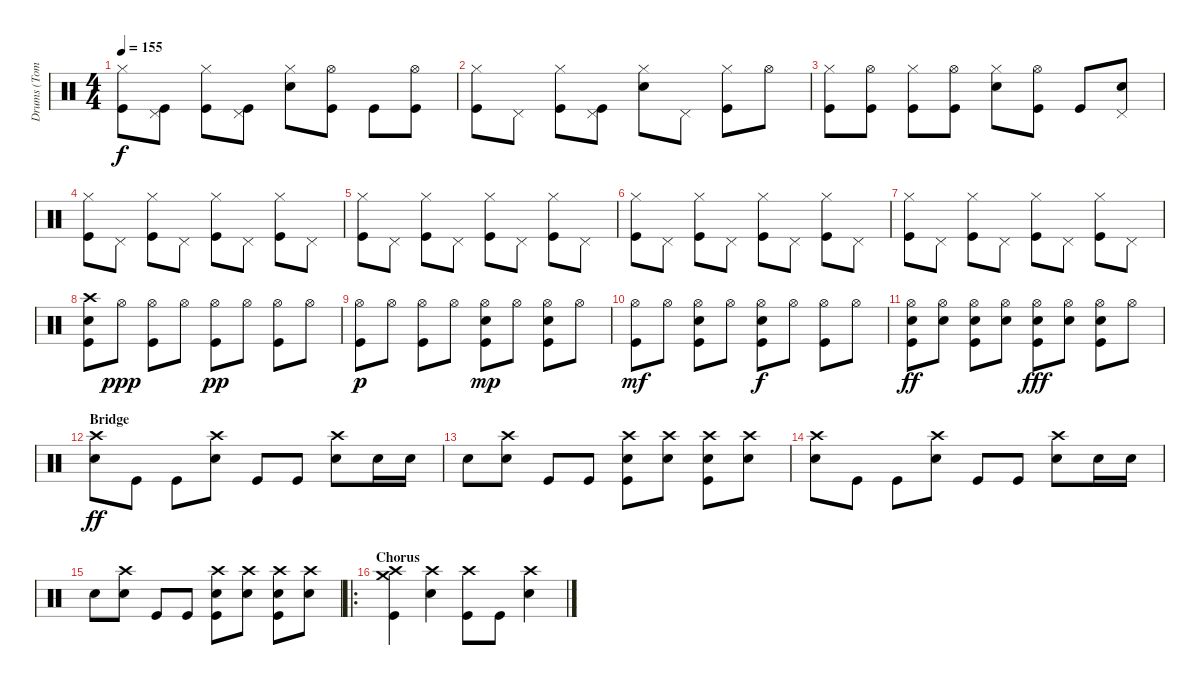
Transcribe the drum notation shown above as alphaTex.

\track ("Drums (Tommy Decker)" "Drums (Tom") {instrument percussion}
\staff {score}
\articulation defaults
\ts (4 4)
\tempo 155
\clef neutral
\ks c
("Hi-Hat (closed)" "Kick (hit)").8{dy f} ("Pedal Hi-Hat (hit)" "Kick (hit)").8 ("Hi-Hat (closed)" "Kick (hit)").8 ("Pedal Hi-Hat (hit)" "Kick (hit)").8 ("Hi-Hat (closed)" "Snare (hit) 2").8 ("Hi-Hat (open)" "Kick (hit)").8 "Kick (hit)".8 ("Hi-Hat (open)" "Kick (hit)").8 |
("Hi-Hat (closed)" "Kick (hit)").8 "Pedal Hi-Hat (hit)".8 ("Hi-Hat (closed)" "Kick (hit)").8 ("Pedal Hi-Hat (hit)" "Kick (hit)").8 ("Hi-Hat (closed)" "Snare (hit) 2").8 "Pedal Hi-Hat (hit)".8 ("Hi-Hat (closed)" "Kick (hit)").8 "Hi-Hat (open)".8 |
("Hi-Hat (closed)" "Kick (hit)").8 ("Hi-Hat (open)" "Kick (hit)").8 ("Hi-Hat (closed)" "Kick (hit)").8 ("Hi-Hat (open)" "Kick (hit)").8 ("Hi-Hat (closed)" "Snare (hit) 2").8 ("Hi-Hat (open)" "Kick (hit)").8 "Kick (hit)".8 ("Pedal Hi-Hat (hit)" "Snare (hit) 2").8 |
("Hi-Hat (closed)" "Kick (hit)").8 "Pedal Hi-Hat (hit)".8 ("Hi-Hat (closed)" "Kick (hit)").8 "Pedal Hi-Hat (hit)".8 ("Hi-Hat (closed)" "Kick (hit)").8 "Pedal Hi-Hat (hit)".8 ("Hi-Hat (closed)" "Kick (hit)").8 "Pedal Hi-Hat (hit)".8 |
("Hi-Hat (closed)" "Kick (hit)").8 "Pedal Hi-Hat (hit)".8 ("Hi-Hat (closed)" "Kick (hit)").8 "Pedal Hi-Hat (hit)".8 ("Hi-Hat (closed)" "Kick (hit)").8 "Pedal Hi-Hat (hit)".8 ("Hi-Hat (closed)" "Kick (hit)").8 "Pedal Hi-Hat (hit)".8 |
("Hi-Hat (closed)" "Kick (hit)").8 "Pedal Hi-Hat (hit)".8 ("Hi-Hat (closed)" "Kick (hit)").8 "Pedal Hi-Hat (hit)".8 ("Hi-Hat (closed)" "Kick (hit)").8 "Pedal Hi-Hat (hit)".8 ("Hi-Hat (closed)" "Kick (hit)").8 "Pedal Hi-Hat (hit)".8 |
("Hi-Hat (closed)" "Kick (hit)").8 "Pedal Hi-Hat (hit)".8 ("Hi-Hat (closed)" "Kick (hit)").8 "Pedal Hi-Hat (hit)".8 ("Hi-Hat (closed)" "Kick (hit)").8 "Pedal Hi-Hat (hit)".8 ("Hi-Hat (closed)" "Kick (hit)").8 "Pedal Hi-Hat (hit)".8 |
("Crash high (hit)" "Snare (hit) 2" "Kick (hit)").8 "Hi-Hat (open)".8{dy ppp} ("Hi-Hat (open)" "Kick (hit)").8 "Hi-Hat (open)".8 ("Hi-Hat (open)" "Kick (hit)").8{dy pp} "Hi-Hat (open)".8 ("Hi-Hat (open)" "Kick (hit)").8 "Hi-Hat (open)".8 |
("Hi-Hat (open)" "Kick (hit)").8{dy p} "Hi-Hat (open)".8 ("Hi-Hat (open)" "Kick (hit)").8 "Hi-Hat (open)".8 ("Hi-Hat (open)" "Snare (hit) 2" "Kick (hit)").8{dy mp} "Hi-Hat (open)".8 ("Hi-Hat (open)" "Snare (hit) 2" "Kick (hit)").8 "Hi-Hat (open)".8 |
("Hi-Hat (open)" "Kick (hit)").8{dy mf} "Hi-Hat (open)".8 ("Hi-Hat (open)" "Snare (hit) 2" "Kick (hit)").8 "Hi-Hat (open)".8 ("Hi-Hat (open)" "Snare (hit) 2" "Kick (hit)").8{dy f} "Hi-Hat (open)".8 ("Hi-Hat (open)" "Kick (hit)").8 "Hi-Hat (open)".8 |
("Hi-Hat (open)" "Snare (hit) 2" "Kick (hit)").8{dy ff} ("Hi-Hat (open)" "Snare (hit) 2").8 ("Hi-Hat (open)" "Snare (hit) 2" "Kick (hit)").8 ("Hi-Hat (open)" "Snare (hit) 2").8 ("Hi-Hat (open)" "Snare (hit) 2" "Kick (hit)").8{dy fff} ("Hi-Hat (open)" "Snare (hit) 2").8 ("Hi-Hat (open)" "Snare (hit) 2" "Kick (hit)").8 "Hi-Hat (open)".8 |
\section ("" "Bridge")
("Crash high (hit)" "Snare (hit) 2").8{dy ff} "Kick (hit)".8 "Kick (hit)".8 ("Crash high (hit)" "Snare (hit) 2").8 "Kick (hit)".8 "Kick (hit)".8 ("Crash high (hit)" "Snare (hit) 2").8 "Snare (hit) 2".16 "Snare (hit) 2".16 |
"Snare (hit) 2".8 ("Crash high (hit)" "Snare (hit) 2").8 "Kick (hit)".8 "Kick (hit)".8 ("Crash high (hit)" "Snare (hit) 2" "Kick (hit)").8 ("Crash high (hit)" "Snare (hit) 2").8 ("Crash high (hit)" "Snare (hit) 2" "Kick (hit)").8 ("Crash high (hit)" "Snare (hit) 2").8 |
("Crash high (hit)" "Snare (hit) 2").8 "Kick (hit)".8 "Kick (hit)".8 ("Crash high (hit)" "Snare (hit) 2").8 "Kick (hit)".8 "Kick (hit)".8 ("Crash high (hit)" "Snare (hit) 2").8 "Snare (hit) 2".16 "Snare (hit) 2".16 |
"Snare (hit) 2".8 ("Crash high (hit)" "Snare (hit) 2").8 "Kick (hit)".8 "Kick (hit)".8 ("Crash high (hit)" "Snare (hit) 2" "Kick (hit)").8 ("Crash high (hit)" "Snare (hit) 2").8 ("Crash high (hit)" "Snare (hit) 2" "Kick (hit)").8 ("Crash high (hit)" "Snare (hit) 2").8 |
\ro
\section ("" "Chorus")
("Crash high (hit)" "Crash medium (hit)" "Kick (hit)").4 ("Crash high (hit)" "Snare (hit) 2").4 ("Crash high (hit)" "Kick (hit)").8 "Kick (hit)".8 ("Crash high (hit)" "Snare (hit) 2").4
